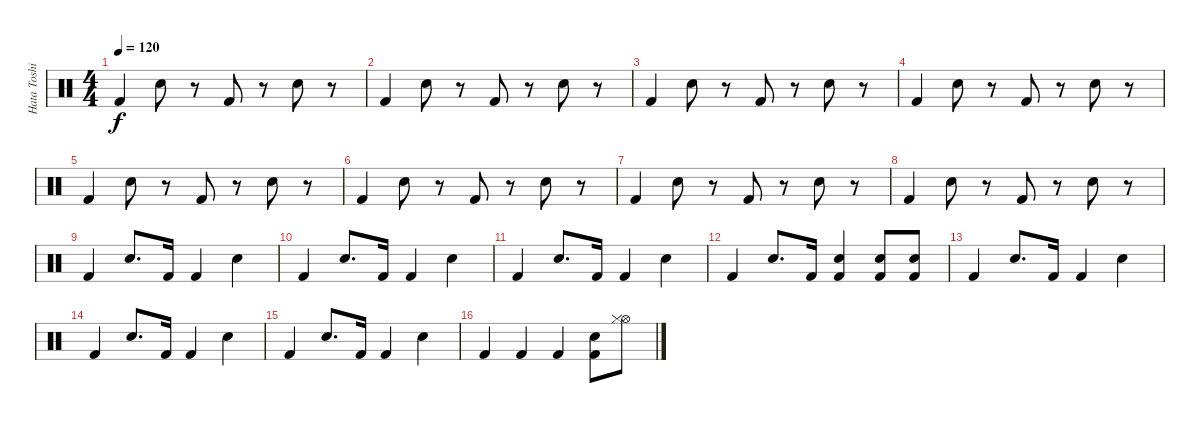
\track ("Hata Toshiki" "Hata Toshi") {instrument percussion}
\staff {score}
\articulation defaults
\ts (4 4)
\tempo 120
\clef neutral
\ks c "Kick (hit) 2".4{dy f} "Electric Snare (hit)".8
r.8 "Kick (hit) 2".8 r.8 "Electric Snare (hit)".8 r.8 |
"Kick (hit) 2".4 "Electric Snare (hit)".8 r.8 "Kick (hit) 2".8 r.8 "Electric Snare (hit)".8 r.8 |
"Kick (hit) 2".4 "Electric Snare (hit)".8 r.8 "Kick (hit) 2".8 r.8 "Electric Snare (hit)".8 r.8 |
"Kick (hit) 2".4 "Electric Snare (hit)".8 r.8 "Kick (hit) 2".8 r.8 "Electric Snare (hit)".8 r.8 |
"Kick (hit) 2".4 "Electric Snare (hit)".8 r.8 "Kick (hit) 2".8 r.8 "Electric Snare (hit)".8 r.8 |
"Kick (hit) 2".4 "Electric Snare (hit)".8 r.8 "Kick (hit) 2".8 r.8 "Electric Snare (hit)".8 r.8 |
"Kick (hit) 2".4 "Electric Snare (hit)".8 r.8 "Kick (hit) 2".8 r.8 "Electric Snare (hit)".8 r.8 |
"Kick (hit) 2".4 "Electric Snare (hit)".8 r.8 "Kick (hit) 2".8 r.8 "Electric Snare (hit)".8 r.8 |
"Kick (hit) 2".4 "Electric Snare (hit)".8{d} "Kick (hit) 2".16 "Kick (hit) 2".4 "Electric Snare (hit)".4 |
"Kick (hit) 2".4 "Electric Snare (hit)".8{d} "Kick (hit) 2".16 "Kick (hit) 2".4 "Electric Snare (hit)".4 |
"Kick (hit) 2".4 "Electric Snare (hit)".8{d} "Kick (hit) 2".16 "Kick (hit) 2".4 "Electric Snare (hit)".4 |
"Kick (hit) 2".4 "Electric Snare (hit)".8{d} "Kick (hit) 2".16 ("Electric Snare (hit)" "Kick (hit) 2").4 ("Electric Snare (hit)" "Kick (hit) 2").8 ("Electric Snare (hit)" "Kick (hit) 2").8 |
"Kick (hit) 2".4 "Electric Snare (hit)".8{d} "Kick (hit) 2".16 "Kick (hit) 2".4 "Electric Snare (hit)".4 |
"Kick (hit) 2".4 "Electric Snare (hit)".8{d} "Kick (hit) 2".16 "Kick (hit) 2".4 "Electric Snare (hit)".4 |
"Kick (hit) 2".4 "Electric Snare (hit)".8{d} "Kick (hit) 2".16 "Kick (hit) 2".4 "Electric Snare (hit)".4 |
"Kick (hit) 2".4 "Kick (hit) 2".4 "Kick (hit) 2".4 ("Electric Snare (hit)" "Kick (hit) 2").8 ("Hi-Hat (open)" "Hi-Hat (closed)").8
